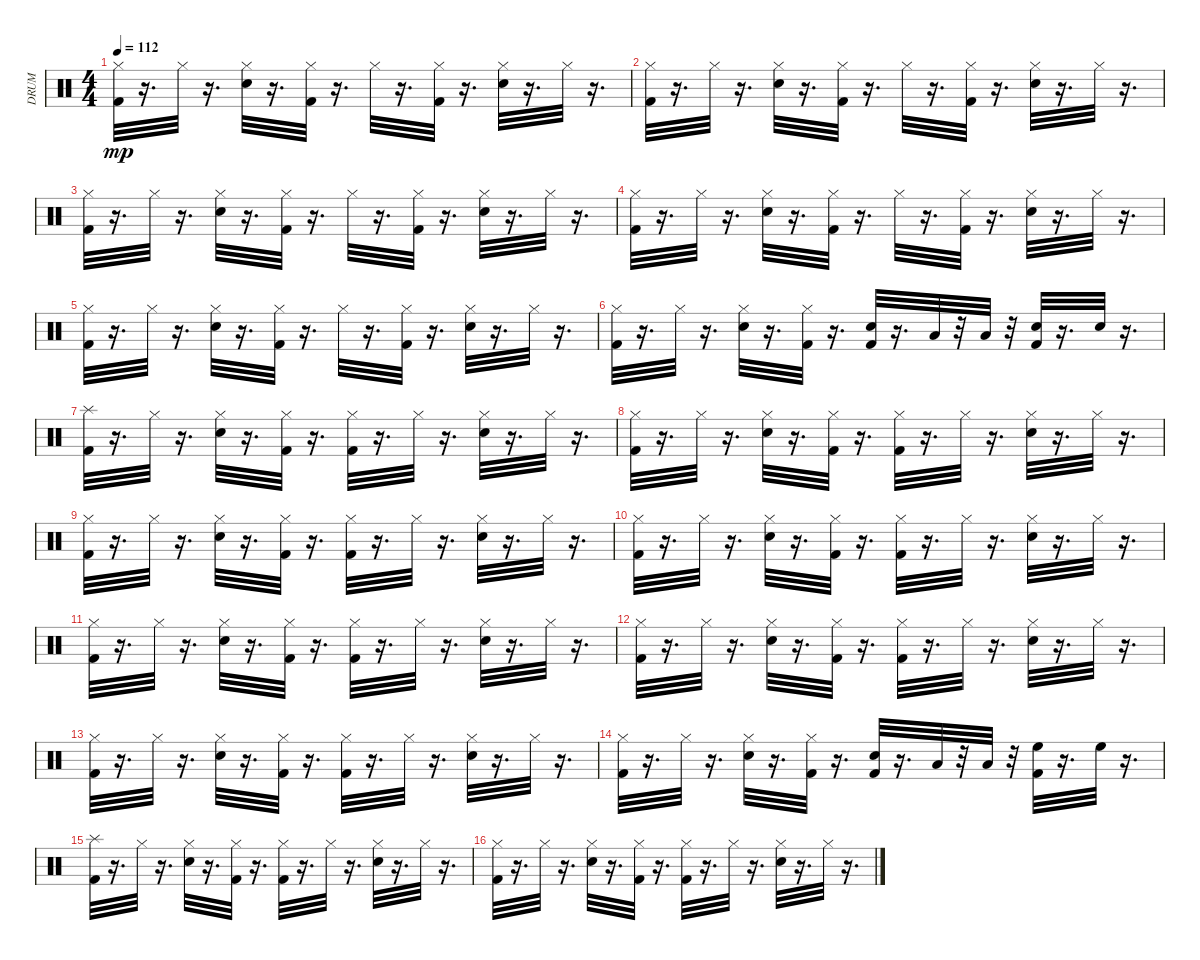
\track ("DRUM" "DRUM") {instrument percussion}
\staff {score}
\articulation defaults
\ts (4 4)
\tempo 112
\clef neutral
\ks c
("Kick (hit) 2" "Hi-Hat (closed)").32{dy mp} r.16{d} "Hi-Hat (closed)".32 r.16{d} ("Hi-Hat (closed)" "Snare (hit) 2").32 r.16{d} ("Kick (hit) 2" "Hi-Hat (closed)").32 r.16{d} "Hi-Hat (closed)".32 r.16{d} ("Kick (hit) 2" "Hi-Hat (closed)").32 r.16{d} ("Hi-Hat (closed)" "Snare (hit) 2").32 r.16{d} "Hi-Hat (closed)".32 r.16{d} |
("Kick (hit) 2" "Hi-Hat (closed)").32 r.16{d} "Hi-Hat (closed)".32 r.16{d} ("Hi-Hat (closed)" "Snare (hit) 2").32 r.16{d} ("Kick (hit) 2" "Hi-Hat (closed)").32 r.16{d} "Hi-Hat (closed)".32 r.16{d} ("Kick (hit) 2" "Hi-Hat (closed)").32 r.16{d} ("Hi-Hat (closed)" "Snare (hit) 2").32 r.16{d} "Hi-Hat (closed)".32 r.16{d} |
("Kick (hit) 2" "Hi-Hat (closed)").32 r.16{d} "Hi-Hat (closed)".32 r.16{d} ("Hi-Hat (closed)" "Snare (hit) 2").32 r.16{d} ("Kick (hit) 2" "Hi-Hat (closed)").32 r.16{d} "Hi-Hat (closed)".32 r.16{d} ("Kick (hit) 2" "Hi-Hat (closed)").32 r.16{d} ("Hi-Hat (closed)" "Snare (hit) 2").32 r.16{d} "Hi-Hat (closed)".32 r.16{d} |
("Kick (hit) 2" "Hi-Hat (closed)").32 r.16{d} "Hi-Hat (closed)".32 r.16{d} ("Hi-Hat (closed)" "Snare (hit) 2").32 r.16{d} ("Kick (hit) 2" "Hi-Hat (closed)").32 r.16{d} "Hi-Hat (closed)".32 r.16{d} ("Kick (hit) 2" "Hi-Hat (closed)").32 r.16{d} ("Hi-Hat (closed)" "Snare (hit) 2").32 r.16{d} "Hi-Hat (closed)".32 r.16{d} |
("Kick (hit) 2" "Hi-Hat (closed)").32 r.16{d} "Hi-Hat (closed)".32 r.16{d} ("Hi-Hat (closed)" "Snare (hit) 2").32 r.16{d} ("Kick (hit) 2" "Hi-Hat (closed)").32 r.16{d} "Hi-Hat (closed)".32 r.16{d} ("Kick (hit) 2" "Hi-Hat (closed)").32 r.16{d} ("Hi-Hat (closed)" "Snare (hit) 2").32 r.16{d} "Hi-Hat (closed)".32 r.16{d} |
("Kick (hit) 2" "Hi-Hat (closed)").32 r.16{d} "Hi-Hat (closed)".32 r.16{d} ("Hi-Hat (closed)" "Snare (hit) 2").32 r.16{d} ("Kick (hit) 2" "Hi-Hat (closed)").32 r.16{d} ("Kick (hit) 2" "Snare (hit) 2").32 r.16{d} "Low Floor Tom (hit)".32 r.32 "Low Floor Tom (hit)".32 r.32 ("Kick (hit) 2" "Electric Snare (hit)").32 r.16{d} "Snare (hit) 2".32 r.16{d} |
("Kick (hit) 2" "Splash (hit)").32 r.16{d} "Hi-Hat (closed)".32 r.16{d} ("Hi-Hat (closed)" "Snare (hit) 2").32 r.16{d} ("Kick (hit) 2" "Hi-Hat (closed)").32 r.16{d} ("Kick (hit) 2" "Hi-Hat (closed)").32 r.16{d} "Hi-Hat (closed)".32 r.16{d} ("Hi-Hat (closed)" "Snare (hit) 2").32 r.16{d} "Hi-Hat (closed)".32 r.16{d} |
("Kick (hit) 2" "Hi-Hat (closed)").32 r.16{d} "Hi-Hat (closed)".32 r.16{d} ("Hi-Hat (closed)" "Snare (hit) 2").32 r.16{d} ("Kick (hit) 2" "Hi-Hat (closed)").32 r.16{d} ("Kick (hit) 2" "Hi-Hat (closed)").32 r.16{d} "Hi-Hat (closed)".32 r.16{d} ("Hi-Hat (closed)" "Snare (hit) 2").32 r.16{d} "Hi-Hat (closed)".32 r.16{d} |
("Kick (hit) 2" "Hi-Hat (closed)").32 r.16{d} "Hi-Hat (closed)".32 r.16{d} ("Hi-Hat (closed)" "Snare (hit) 2").32 r.16{d} ("Kick (hit) 2" "Hi-Hat (closed)").32 r.16{d} ("Kick (hit) 2" "Hi-Hat (closed)").32 r.16{d} "Hi-Hat (closed)".32 r.16{d} ("Hi-Hat (closed)" "Snare (hit) 2").32 r.16{d} "Hi-Hat (closed)".32 r.16{d} |
("Kick (hit) 2" "Hi-Hat (closed)").32 r.16{d} "Hi-Hat (closed)".32 r.16{d} ("Hi-Hat (closed)" "Snare (hit) 2").32 r.16{d} ("Kick (hit) 2" "Hi-Hat (closed)").32 r.16{d} ("Kick (hit) 2" "Hi-Hat (closed)").32 r.16{d} "Hi-Hat (closed)".32 r.16{d} ("Hi-Hat (closed)" "Snare (hit) 2").32 r.16{d} "Hi-Hat (closed)".32 r.16{d} |
("Kick (hit) 2" "Hi-Hat (closed)").32 r.16{d} "Hi-Hat (closed)".32 r.16{d} ("Hi-Hat (closed)" "Snare (hit) 2").32 r.16{d} ("Kick (hit) 2" "Hi-Hat (closed)").32 r.16{d} ("Kick (hit) 2" "Hi-Hat (closed)").32 r.16{d} "Hi-Hat (closed)".32 r.16{d} ("Hi-Hat (closed)" "Snare (hit) 2").32 r.16{d} "Hi-Hat (closed)".32 r.16{d} |
("Kick (hit) 2" "Hi-Hat (closed)").32 r.16{d} "Hi-Hat (closed)".32 r.16{d} ("Hi-Hat (closed)" "Snare (hit) 2").32 r.16{d} ("Kick (hit) 2" "Hi-Hat (closed)").32 r.16{d} ("Kick (hit) 2" "Hi-Hat (closed)").32 r.16{d} "Hi-Hat (closed)".32 r.16{d} ("Hi-Hat (closed)" "Snare (hit) 2").32 r.16{d} "Hi-Hat (closed)".32 r.16{d} |
("Kick (hit) 2" "Hi-Hat (closed)").32 r.16{d} "Hi-Hat (closed)".32 r.16{d} ("Hi-Hat (closed)" "Snare (hit) 2").32 r.16{d} ("Kick (hit) 2" "Hi-Hat (closed)").32 r.16{d} ("Kick (hit) 2" "Hi-Hat (closed)").32 r.16{d} "Hi-Hat (closed)".32 r.16{d} ("Hi-Hat (closed)" "Snare (hit) 2").32 r.16{d} "Hi-Hat (closed)".32 r.16{d} |
("Kick (hit) 2" "Hi-Hat (closed)").32 r.16{d} "Hi-Hat (closed)".32 r.16{d} ("Hi-Hat (closed)" "Snare (hit) 2").32 r.16{d} ("Kick (hit) 2" "Hi-Hat (closed)").32 r.16{d} ("Kick (hit) 2" "Snare (hit) 2").32 r.16{d} "Low Floor Tom (hit)".32 r.32 "Low Floor Tom (hit)".32 r.32 ("Kick (hit) 2" "High Floor Tom (hit)").32 r.16{d} "High Floor Tom (hit)".32 r.16{d} |
("Kick (hit) 2" "Splash (hit)").32 r.16{d} "Hi-Hat (closed)".32 r.16{d} ("Hi-Hat (closed)" "Snare (hit) 2").32 r.16{d} ("Kick (hit) 2" "Hi-Hat (closed)").32 r.16{d} ("Kick (hit) 2" "Hi-Hat (closed)").32 r.16{d} "Hi-Hat (closed)".32 r.16{d} ("Hi-Hat (closed)" "Snare (hit) 2").32 r.16{d} "Hi-Hat (closed)".32 r.16{d} |
("Kick (hit) 2" "Hi-Hat (closed)").32 r.16{d} "Hi-Hat (closed)".32 r.16{d} ("Hi-Hat (closed)" "Snare (hit) 2").32 r.16{d} ("Kick (hit) 2" "Hi-Hat (closed)").32 r.16{d} ("Kick (hit) 2" "Hi-Hat (closed)").32 r.16{d} "Hi-Hat (closed)".32 r.16{d} ("Hi-Hat (closed)" "Snare (hit) 2").32 r.16{d} "Hi-Hat (closed)".32 r.16{d}
